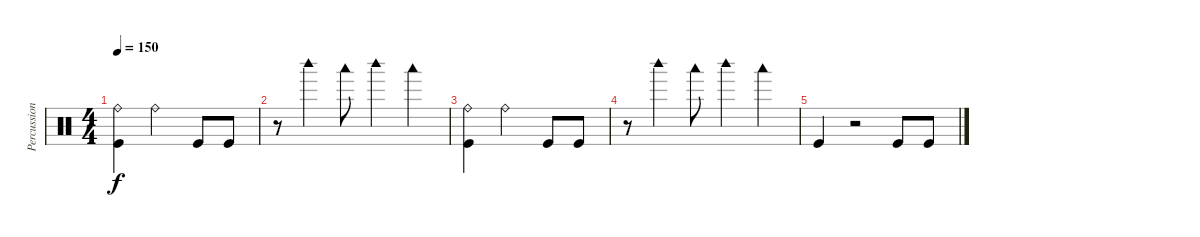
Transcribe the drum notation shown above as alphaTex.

\track ("Percussion" "Percussion") {instrument percussion}
\staff {score}
\articulation defaults
\ts (4 4)
\tempo 150
\clef neutral
\ks c
("Ride (bell)" "Kick (hit)").4{dy f} "Ride (bell)".2 "Kick (hit)".8 "Kick (hit)".8 |
r.8 "Woodblock high (hit)".4 "Woodblock low (hit)".8 "Woodblock high (hit)".4 "Woodblock low (hit)".4 |
("Ride (bell)" "Kick (hit)").4 "Ride (bell)".2 "Kick (hit)".8 "Kick (hit)".8 |
r.8 "Woodblock high (hit)".4 "Woodblock low (hit)".8 "Woodblock high (hit)".4 "Woodblock low (hit)".4 |
"Kick (hit)".4 r.2 "Kick (hit)".8 "Kick (hit)".8
